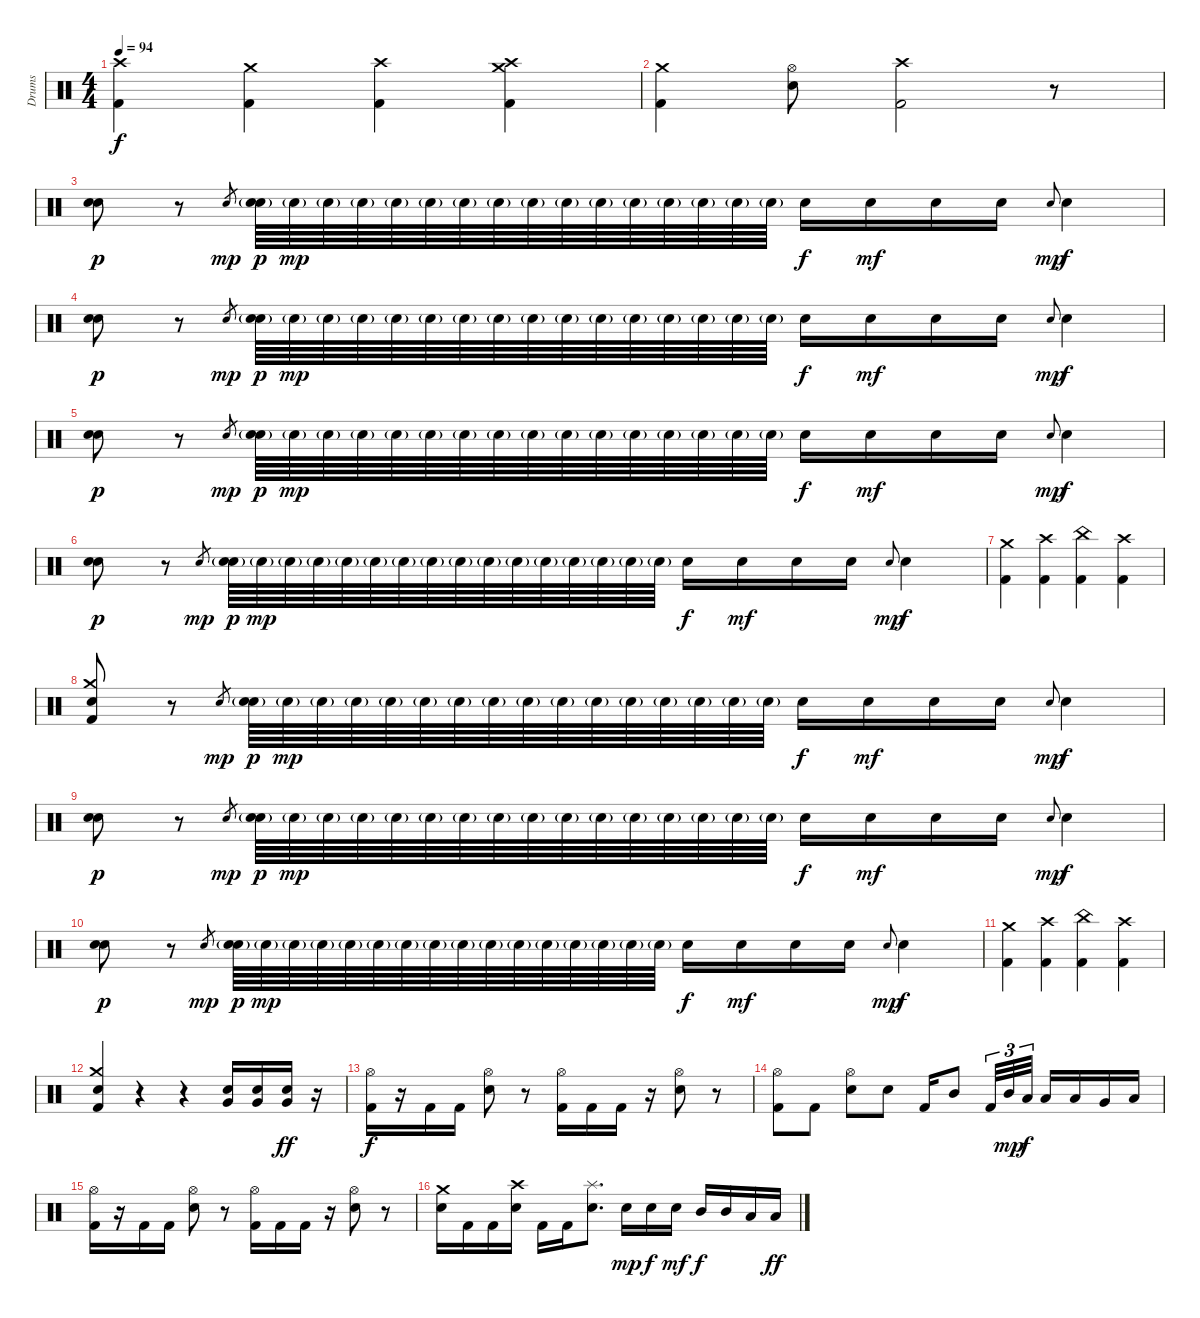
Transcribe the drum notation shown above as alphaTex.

\track ("Drums" "Drums") {instrument percussion}
\staff {score}
\articulation defaults
\ts (4 4)
\tempo 94
\clef neutral
\ks c
("Crash high (hit)" "Kick (hit) 2").4{dy f} ("Crash medium (hit)" "Kick (hit) 2").4 ("Crash high (hit)" "Kick (hit) 2").4 ("Crash high (hit)" "Crash medium (hit)" "Kick (hit) 2").4 |
("Crash medium (hit)" "Kick (hit) 2").4 ("Hi-Hat (open)" "Electric Snare (hit)").8 ("Crash high (hit)" "Kick (hit) 2").2 r.8 |
("Electric Snare (hit)" "Snare (hit) 2").8{dy p} r.8 "Electric Snare (hit)".8{gr dy mp} ("Electric Snare (hit)"{g} "Snare (hit) 2").64{dy p} "Electric Snare (hit)"{g}.64{dy mp} "Electric Snare (hit)"{g}.64 "Electric Snare (hit)"{g}.64 "Electric Snare (hit)"{g}.64 "Electric Snare (hit)"{g}.64 "Electric Snare (hit)"{g}.64 "Electric Snare (hit)"{g}.64 "Electric Snare (hit)"{g}.64 "Electric Snare (hit)"{g}.64 "Electric Snare (hit)"{g}.64 "Electric Snare (hit)"{g}.64 "Electric Snare (hit)"{g}.64 "Electric Snare (hit)"{g}.64 "Electric Snare (hit)"{g}.64 "Electric Snare (hit)"{g}.64 "Electric Snare (hit)".16{dy f} "Electric Snare (hit)".16{dy mf} "Electric Snare (hit)".16 "Electric Snare (hit)".16 "Electric Snare (hit)".8{gr onbeat dy mp} "Electric Snare (hit)".4{dy f} |
("Electric Snare (hit)" "Snare (hit) 2").8{dy p} r.8 "Electric Snare (hit)".8{gr dy mp} ("Electric Snare (hit)"{g} "Snare (hit) 2").64{dy p} "Electric Snare (hit)"{g}.64{dy mp} "Electric Snare (hit)"{g}.64 "Electric Snare (hit)"{g}.64 "Electric Snare (hit)"{g}.64 "Electric Snare (hit)"{g}.64 "Electric Snare (hit)"{g}.64 "Electric Snare (hit)"{g}.64 "Electric Snare (hit)"{g}.64 "Electric Snare (hit)"{g}.64 "Electric Snare (hit)"{g}.64 "Electric Snare (hit)"{g}.64 "Electric Snare (hit)"{g}.64 "Electric Snare (hit)"{g}.64 "Electric Snare (hit)"{g}.64 "Electric Snare (hit)"{g}.64 "Electric Snare (hit)".16{dy f} "Electric Snare (hit)".16{dy mf} "Electric Snare (hit)".16 "Electric Snare (hit)".16 "Electric Snare (hit)".8{gr onbeat dy mp} "Electric Snare (hit)".4{dy f} |
("Electric Snare (hit)" "Snare (hit) 2").8{dy p} r.8 "Electric Snare (hit)".8{gr dy mp} ("Electric Snare (hit)"{g} "Snare (hit) 2").64{dy p} "Electric Snare (hit)"{g}.64{dy mp} "Electric Snare (hit)"{g}.64 "Electric Snare (hit)"{g}.64 "Electric Snare (hit)"{g}.64 "Electric Snare (hit)"{g}.64 "Electric Snare (hit)"{g}.64 "Electric Snare (hit)"{g}.64 "Electric Snare (hit)"{g}.64 "Electric Snare (hit)"{g}.64 "Electric Snare (hit)"{g}.64 "Electric Snare (hit)"{g}.64 "Electric Snare (hit)"{g}.64 "Electric Snare (hit)"{g}.64 "Electric Snare (hit)"{g}.64 "Electric Snare (hit)"{g}.64 "Electric Snare (hit)".16{dy f} "Electric Snare (hit)".16{dy mf} "Electric Snare (hit)".16 "Electric Snare (hit)".16 "Electric Snare (hit)".8{gr onbeat dy mp} "Electric Snare (hit)".4{dy f} |
("Electric Snare (hit)" "Snare (hit) 2").8{dy p} r.8 "Electric Snare (hit)".8{gr dy mp} ("Electric Snare (hit)"{g} "Snare (hit) 2").64{dy p} "Electric Snare (hit)"{g}.64{dy mp} "Electric Snare (hit)"{g}.64 "Electric Snare (hit)"{g}.64 "Electric Snare (hit)"{g}.64 "Electric Snare (hit)"{g}.64 "Electric Snare (hit)"{g}.64 "Electric Snare (hit)"{g}.64 "Electric Snare (hit)"{g}.64 "Electric Snare (hit)"{g}.64 "Electric Snare (hit)"{g}.64 "Electric Snare (hit)"{g}.64 "Electric Snare (hit)"{g}.64 "Electric Snare (hit)"{g}.64 "Electric Snare (hit)"{g}.64 "Electric Snare (hit)"{g}.64 "Electric Snare (hit)".16{dy f} "Electric Snare (hit)".16{dy mf} "Electric Snare (hit)".16 "Electric Snare (hit)".16 "Electric Snare (hit)".8{gr onbeat dy mp} "Electric Snare (hit)".4{dy f} |
("Crash medium (hit)" "Kick (hit) 2").4 ("Crash high (hit)" "Kick (hit) 2").4 ("China (hit)" "Kick (hit) 2").4 ("Crash high (hit)" "Kick (hit) 2").4 |
("Crash medium (hit)" "Electric Snare (hit)" "Kick (hit) 2").8 r.8 "Electric Snare (hit)".8{gr dy mp} ("Electric Snare (hit)"{g} "Snare (hit) 2").64{dy p} "Electric Snare (hit)"{g}.64{dy mp} "Electric Snare (hit)"{g}.64 "Electric Snare (hit)"{g}.64 "Electric Snare (hit)"{g}.64 "Electric Snare (hit)"{g}.64 "Electric Snare (hit)"{g}.64 "Electric Snare (hit)"{g}.64 "Electric Snare (hit)"{g}.64 "Electric Snare (hit)"{g}.64 "Electric Snare (hit)"{g}.64 "Electric Snare (hit)"{g}.64 "Electric Snare (hit)"{g}.64 "Electric Snare (hit)"{g}.64 "Electric Snare (hit)"{g}.64 "Electric Snare (hit)"{g}.64 "Electric Snare (hit)".16{dy f} "Electric Snare (hit)".16{dy mf} "Electric Snare (hit)".16 "Electric Snare (hit)".16 "Electric Snare (hit)".8{gr onbeat dy mp} "Electric Snare (hit)".4{dy f} |
("Electric Snare (hit)" "Snare (hit) 2").8{dy p} r.8 "Electric Snare (hit)".8{gr dy mp} ("Electric Snare (hit)"{g} "Snare (hit) 2").64{dy p} "Electric Snare (hit)"{g}.64{dy mp} "Electric Snare (hit)"{g}.64 "Electric Snare (hit)"{g}.64 "Electric Snare (hit)"{g}.64 "Electric Snare (hit)"{g}.64 "Electric Snare (hit)"{g}.64 "Electric Snare (hit)"{g}.64 "Electric Snare (hit)"{g}.64 "Electric Snare (hit)"{g}.64 "Electric Snare (hit)"{g}.64 "Electric Snare (hit)"{g}.64 "Electric Snare (hit)"{g}.64 "Electric Snare (hit)"{g}.64 "Electric Snare (hit)"{g}.64 "Electric Snare (hit)"{g}.64 "Electric Snare (hit)".16{dy f} "Electric Snare (hit)".16{dy mf} "Electric Snare (hit)".16 "Electric Snare (hit)".16 "Electric Snare (hit)".8{gr onbeat dy mp} "Electric Snare (hit)".4{dy f} |
("Electric Snare (hit)" "Snare (hit) 2").8{dy p} r.8 "Electric Snare (hit)".8{gr dy mp} ("Electric Snare (hit)"{g} "Snare (hit) 2").64{dy p} "Electric Snare (hit)"{g}.64{dy mp} "Electric Snare (hit)"{g}.64 "Electric Snare (hit)"{g}.64 "Electric Snare (hit)"{g}.64 "Electric Snare (hit)"{g}.64 "Electric Snare (hit)"{g}.64 "Electric Snare (hit)"{g}.64 "Electric Snare (hit)"{g}.64 "Electric Snare (hit)"{g}.64 "Electric Snare (hit)"{g}.64 "Electric Snare (hit)"{g}.64 "Electric Snare (hit)"{g}.64 "Electric Snare (hit)"{g}.64 "Electric Snare (hit)"{g}.64 "Electric Snare (hit)"{g}.64 "Electric Snare (hit)".16{dy f} "Electric Snare (hit)".16{dy mf} "Electric Snare (hit)".16 "Electric Snare (hit)".16 "Electric Snare (hit)".8{gr onbeat dy mp} "Electric Snare (hit)".4{dy f} |
("Crash medium (hit)" "Kick (hit) 2").4 ("Crash high (hit)" "Kick (hit) 2").4 ("China (hit)" "Kick (hit) 2").4 ("Crash high (hit)" "Kick (hit) 2").4 |
("Crash medium (hit)" "Electric Snare (hit)" "Kick (hit) 2").4 r.4 r.4 ("Very Low Tom (hit)" "Electric Snare (hit)").16 ("Very Low Tom (hit)" "Electric Snare (hit)").16 ("Very Low Tom (hit)" "Electric Snare (hit)").16{dy ff} r.16 |
("Hi-Hat (open)" "Kick (hit) 2").16{dy f} r.16 "Kick (hit) 2".16 "Kick (hit) 2".16 ("Hi-Hat (open)" "Electric Snare (hit)").8 r.8 ("Hi-Hat (open)" "Kick (hit) 2").16 "Kick (hit) 2".16 "Kick (hit) 2".16 r.16 ("Hi-Hat (open)" "Electric Snare (hit)").8 r.8 |
("Hi-Hat (open)" "Kick (hit) 2").8 "Kick (hit) 2".8 ("Hi-Hat (open)" "Electric Snare (hit)").8 "Electric Snare (hit)".8 "Kick (hit) 2".16 "Mid Tom (hit)".8 "Kick (hit) 2".32{tu (3 2)} "Mid Tom (hit)".32{tu (3 2) dy mp} "Low Tom (hit)".32{tu (3 2) dy f} "Low Tom (hit)".16 "Low Tom (hit)".16 "Very Low Tom (hit)".16 "Low Floor Tom (hit)".16 |
("Hi-Hat (open)" "Kick (hit) 2").16 r.16 "Kick (hit) 2".16 "Kick (hit) 2".16 ("Hi-Hat (open)" "Electric Snare (hit)").8 r.8 ("Hi-Hat (open)" "Kick (hit) 2").16 "Kick (hit) 2".16 "Kick (hit) 2".16 r.16 ("Hi-Hat (open)" "Electric Snare (hit)").8 r.8 |
("Crash medium (hit)" "Electric Snare (hit)").16 "Kick (hit) 2".16 "Kick (hit) 2".16 ("Crash high (hit)" "Electric Snare (hit)").16 "Kick (hit) 2".16 "Kick (hit) 2".16 ("Splash (hit)" "Electric Snare (hit)").8{d} "Electric Snare (hit)".16{dy mp} "Electric Snare (hit)".16{dy f} "Electric Snare (hit)".16{dy mf} "Mid Tom (hit)".16{dy f} "Mid Tom (hit)".16 "Low Tom (hit)".16 "Low Tom (hit)".16{dy ff}
